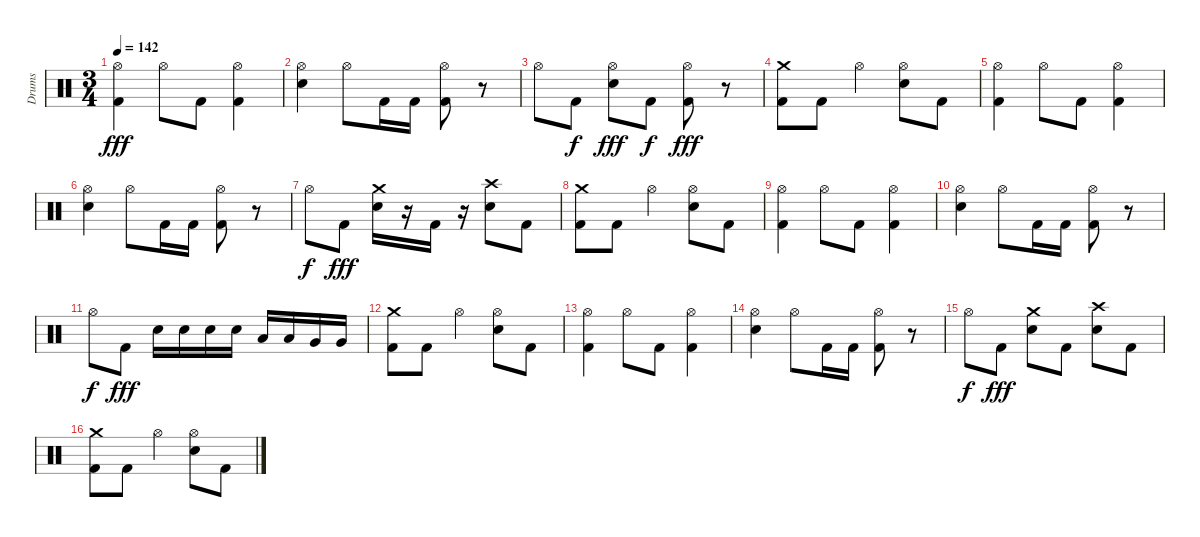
\track ("Drums" "Drums") {instrument percussion}
\staff {score}
\articulation defaults
\ts (3 4)
\tempo 142
\clef neutral
\ks c
("Hi-Hat (open)" "Kick (hit) 2").4{dy fff} "Hi-Hat (open)".8 "Kick (hit) 2".8 ("Hi-Hat (open)" "Kick (hit) 2").4 |
("Hi-Hat (open)" "Electric Snare (hit)").4 "Hi-Hat (open)".8 "Kick (hit) 2".16 "Kick (hit) 2".16 ("Hi-Hat (open)" "Kick (hit) 2").8 r.8 |
"Hi-Hat (open)".8 "Kick (hit) 2".8{dy f} ("Hi-Hat (open)" "Electric Snare (hit)").8{dy fff} "Kick (hit) 2".8{dy f} ("Hi-Hat (open)" "Kick (hit) 2").8{dy fff} r.8 |
("Crash medium (hit)" "Kick (hit) 2").8 "Kick (hit) 2".8 "Hi-Hat (open)".4 ("Hi-Hat (open)" "Electric Snare (hit)").8 "Kick (hit) 2".8 |
("Hi-Hat (open)" "Kick (hit) 2").4 "Hi-Hat (open)".8 "Kick (hit) 2".8 ("Hi-Hat (open)" "Kick (hit) 2").4 |
("Hi-Hat (open)" "Electric Snare (hit)").4 "Hi-Hat (open)".8 "Kick (hit) 2".16 "Kick (hit) 2".16 ("Hi-Hat (open)" "Kick (hit) 2").8 r.8 |
"Hi-Hat (open)".8{dy f} "Kick (hit) 2".8{dy fff} ("Crash medium (hit)" "Electric Snare (hit)").16 r.16 "Kick (hit) 2".16 r.16 ("Crash high (hit)" "Electric Snare (hit)").8 "Kick (hit) 2".8 |
("Crash medium (hit)" "Kick (hit) 2").8 "Kick (hit) 2".8 "Hi-Hat (open)".4 ("Hi-Hat (open)" "Electric Snare (hit)").8 "Kick (hit) 2".8 |
("Hi-Hat (open)" "Kick (hit) 2").4 "Hi-Hat (open)".8 "Kick (hit) 2".8 ("Hi-Hat (open)" "Kick (hit) 2").4 |
("Hi-Hat (open)" "Electric Snare (hit)").4 "Hi-Hat (open)".8 "Kick (hit) 2".16 "Kick (hit) 2".16 ("Hi-Hat (open)" "Kick (hit) 2").8 r.8 |
"Hi-Hat (open)".8{dy f} "Kick (hit) 2".8{dy fff} "Electric Snare (hit)".16 "Electric Snare (hit)".16 "Electric Snare (hit)".16 "Electric Snare (hit)".16 "Low Tom (hit)".16 "Low Tom (hit)".16 "Very Low Tom (hit)".16 "Very Low Tom (hit)".16 |
("Crash medium (hit)" "Kick (hit) 2").8 "Kick (hit) 2".8 "Hi-Hat (open)".4 ("Hi-Hat (open)" "Electric Snare (hit)").8 "Kick (hit) 2".8 |
("Hi-Hat (open)" "Kick (hit) 2").4 "Hi-Hat (open)".8 "Kick (hit) 2".8 ("Hi-Hat (open)" "Kick (hit) 2").4 |
("Hi-Hat (open)" "Electric Snare (hit)").4 "Hi-Hat (open)".8 "Kick (hit) 2".16 "Kick (hit) 2".16 ("Hi-Hat (open)" "Kick (hit) 2").8 r.8 |
"Hi-Hat (open)".8{dy f} "Kick (hit) 2".8{dy fff} ("Crash medium (hit)" "Electric Snare (hit)").8 "Kick (hit) 2".8 ("Crash high (hit)" "Electric Snare (hit)").8 "Kick (hit) 2".8 |
("Crash medium (hit)" "Kick (hit) 2").8 "Kick (hit) 2".8 "Hi-Hat (open)".4 ("Hi-Hat (open)" "Electric Snare (hit)").8 "Kick (hit) 2".8
